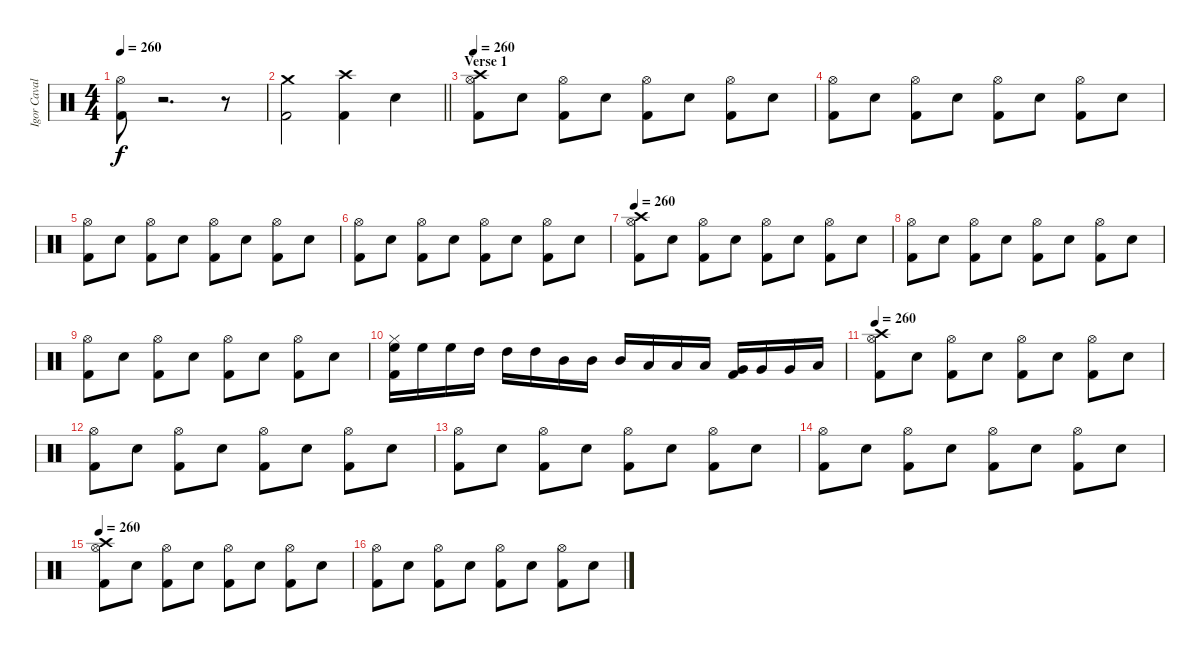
\track ("Igor Cavalera" "Igor Caval") {instrument percussion}
\staff {score}
\articulation defaults
\ts (4 4)
\tempo 260
\clef neutral
\ks c
("Hi-Hat (open)" "Kick (hit) 2").8{dy f} r.2{d} r.8 |
\barLineRight lightlight
("Crash medium (hit)" "Kick (hit) 2").2 ("Crash high (hit)" "Kick (hit) 2").4 "Electric Snare (hit)".4 |
\section ("" "Verse 1")
\tempo 260
("Crash high (hit)" "Hi-Hat (open)" "Kick (hit) 2").8 "Electric Snare (hit)".8 ("Hi-Hat (open)" "Kick (hit) 2").8 "Electric Snare (hit)".8 ("Hi-Hat (open)" "Kick (hit) 2").8 "Electric Snare (hit)".8 ("Hi-Hat (open)" "Kick (hit) 2").8 "Electric Snare (hit)".8 |
("Hi-Hat (open)" "Kick (hit) 2").8 "Electric Snare (hit)".8 ("Hi-Hat (open)" "Kick (hit) 2").8 "Electric Snare (hit)".8 ("Hi-Hat (open)" "Kick (hit) 2").8 "Electric Snare (hit)".8 ("Hi-Hat (open)" "Kick (hit) 2").8 "Electric Snare (hit)".8 |
("Hi-Hat (open)" "Kick (hit) 2").8 "Electric Snare (hit)".8 ("Hi-Hat (open)" "Kick (hit) 2").8 "Electric Snare (hit)".8 ("Hi-Hat (open)" "Kick (hit) 2").8 "Electric Snare (hit)".8 ("Hi-Hat (open)" "Kick (hit) 2").8 "Electric Snare (hit)".8 |
("Hi-Hat (open)" "Kick (hit) 2").8 "Electric Snare (hit)".8 ("Hi-Hat (open)" "Kick (hit) 2").8 "Electric Snare (hit)".8 ("Hi-Hat (open)" "Kick (hit) 2").8 "Electric Snare (hit)".8 ("Hi-Hat (open)" "Kick (hit) 2").8 "Electric Snare (hit)".8 |
\tempo 260
("Crash high (hit)" "Hi-Hat (open)" "Kick (hit) 2").8 "Electric Snare (hit)".8 ("Hi-Hat (open)" "Kick (hit) 2").8 "Electric Snare (hit)".8 ("Hi-Hat (open)" "Kick (hit) 2").8 "Electric Snare (hit)".8 ("Hi-Hat (open)" "Kick (hit) 2").8 "Electric Snare (hit)".8 |
("Hi-Hat (open)" "Kick (hit) 2").8 "Electric Snare (hit)".8 ("Hi-Hat (open)" "Kick (hit) 2").8 "Electric Snare (hit)".8 ("Hi-Hat (open)" "Kick (hit) 2").8 "Electric Snare (hit)".8 ("Hi-Hat (open)" "Kick (hit) 2").8 "Electric Snare (hit)".8 |
("Hi-Hat (open)" "Kick (hit) 2").8 "Electric Snare (hit)".8 ("Hi-Hat (open)" "Kick (hit) 2").8 "Electric Snare (hit)".8 ("Hi-Hat (open)" "Kick (hit) 2").8 "Electric Snare (hit)".8 ("Hi-Hat (open)" "Kick (hit) 2").8 "Electric Snare (hit)".8 |
("Hi-Hat (closed)" "High Floor Tom (hit)" "Kick (hit) 2").16 "High Floor Tom (hit)".16 "High Floor Tom (hit)".16 "High Tom (hit)".16 "High Tom (hit)".16 "High Tom (hit)".16 "Mid Tom (hit)".16 "Mid Tom (hit)".16 "Mid Tom (hit)".16 "Low Tom (hit)".16 "Low Tom (hit)".16 "Low Tom (hit)".16 ("Very Low Tom (hit)" "Kick (hit) 2").16 "Very Low Tom (hit)".16 "Very Low Tom (hit)".16 "Low Floor Tom (hit)".16 |
\tempo 260
("Crash high (hit)" "Hi-Hat (open)" "Kick (hit) 2").8 "Electric Snare (hit)".8 ("Hi-Hat (open)" "Kick (hit) 2").8 "Electric Snare (hit)".8 ("Hi-Hat (open)" "Kick (hit) 2").8 "Electric Snare (hit)".8 ("Hi-Hat (open)" "Kick (hit) 2").8 "Electric Snare (hit)".8 |
("Hi-Hat (open)" "Kick (hit) 2").8 "Electric Snare (hit)".8 ("Hi-Hat (open)" "Kick (hit) 2").8 "Electric Snare (hit)".8 ("Hi-Hat (open)" "Kick (hit) 2").8 "Electric Snare (hit)".8 ("Hi-Hat (open)" "Kick (hit) 2").8 "Electric Snare (hit)".8 |
("Hi-Hat (open)" "Kick (hit) 2").8 "Electric Snare (hit)".8 ("Hi-Hat (open)" "Kick (hit) 2").8 "Electric Snare (hit)".8 ("Hi-Hat (open)" "Kick (hit) 2").8 "Electric Snare (hit)".8 ("Hi-Hat (open)" "Kick (hit) 2").8 "Electric Snare (hit)".8 |
("Hi-Hat (open)" "Kick (hit) 2").8 "Electric Snare (hit)".8 ("Hi-Hat (open)" "Kick (hit) 2").8 "Electric Snare (hit)".8 ("Hi-Hat (open)" "Kick (hit) 2").8 "Electric Snare (hit)".8 ("Hi-Hat (open)" "Kick (hit) 2").8 "Electric Snare (hit)".8 |
\tempo 260
("Crash high (hit)" "Hi-Hat (open)" "Kick (hit) 2").8 "Electric Snare (hit)".8 ("Hi-Hat (open)" "Kick (hit) 2").8 "Electric Snare (hit)".8 ("Hi-Hat (open)" "Kick (hit) 2").8 "Electric Snare (hit)".8 ("Hi-Hat (open)" "Kick (hit) 2").8 "Electric Snare (hit)".8 |
("Hi-Hat (open)" "Kick (hit) 2").8 "Electric Snare (hit)".8 ("Hi-Hat (open)" "Kick (hit) 2").8 "Electric Snare (hit)".8 ("Hi-Hat (open)" "Kick (hit) 2").8 "Electric Snare (hit)".8 ("Hi-Hat (open)" "Kick (hit) 2").8 "Electric Snare (hit)".8
